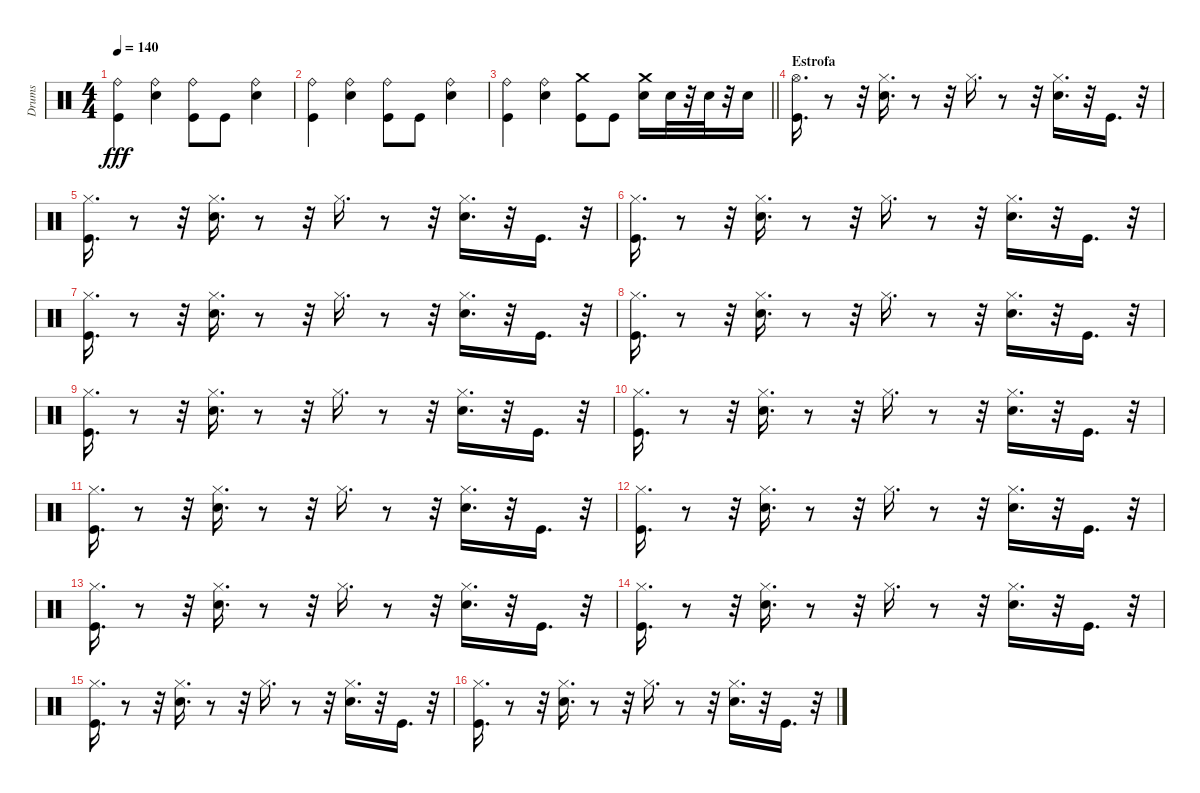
\track ("Drums" "Drums") {instrument percussion}
\staff {score}
\articulation defaults
\ts (4 4)
\tempo 140
\clef neutral
\ks c
("Ride (bell)" "Kick (hit)").4{dy fff} ("Ride (bell)" "Electric Snare (hit)").4 ("Ride (bell)" "Kick (hit)").8 "Kick (hit)".8 ("Ride (bell)" "Electric Snare (hit)").4 |
("Ride (bell)" "Kick (hit)").4 ("Ride (bell)" "Electric Snare (hit)").4 ("Ride (bell)" "Kick (hit)").8 "Kick (hit)".8 ("Ride (bell)" "Electric Snare (hit)").4 |
\barLineRight lightlight
("Ride (bell)" "Kick (hit)").4 ("Ride (bell)" "Electric Snare (hit)").4 ("Crash medium (hit)" "Kick (hit)").8 "Kick (hit)".8 ("Crash medium (hit)" "Electric Snare (hit)").16 "Electric Snare (hit)".32 r.32 "Electric Snare (hit)".32 r.32 "Electric Snare (hit)".16 |
\section ("" "Estrofa")
("Hi-Hat (open)" "Kick (hit)").16{d} r.8 r.32 ("Hi-Hat (closed)" "Electric Snare (hit)").16{d} r.8 r.32 "Hi-Hat (closed)".16{d} r.8 r.32 ("Hi-Hat (closed)" "Electric Snare (hit)").16{d} r.32 "Kick (hit)".16{d} r.32 |
("Hi-Hat (closed)" "Kick (hit)").16{d} r.8 r.32 ("Hi-Hat (closed)" "Electric Snare (hit)").16{d} r.8 r.32 "Hi-Hat (closed)".16{d} r.8 r.32 ("Hi-Hat (closed)" "Electric Snare (hit)").16{d} r.32 "Kick (hit)".16{d} r.32 |
("Hi-Hat (closed)" "Kick (hit)").16{d} r.8 r.32 ("Hi-Hat (closed)" "Electric Snare (hit)").16{d} r.8 r.32 "Hi-Hat (closed)".16{d} r.8 r.32 ("Hi-Hat (closed)" "Electric Snare (hit)").16{d} r.32 "Kick (hit)".16{d} r.32 |
("Hi-Hat (closed)" "Kick (hit)").16{d} r.8 r.32 ("Hi-Hat (closed)" "Electric Snare (hit)").16{d} r.8 r.32 "Hi-Hat (closed)".16{d} r.8 r.32 ("Hi-Hat (closed)" "Electric Snare (hit)").16{d} r.32 "Kick (hit)".16{d} r.32 |
("Hi-Hat (closed)" "Kick (hit)").16{d} r.8 r.32 ("Hi-Hat (closed)" "Electric Snare (hit)").16{d} r.8 r.32 "Hi-Hat (closed)".16{d} r.8 r.32 ("Hi-Hat (closed)" "Electric Snare (hit)").16{d} r.32 "Kick (hit)".16{d} r.32 |
("Hi-Hat (closed)" "Kick (hit)").16{d} r.8 r.32 ("Hi-Hat (closed)" "Electric Snare (hit)").16{d} r.8 r.32 "Hi-Hat (closed)".16{d} r.8 r.32 ("Hi-Hat (closed)" "Electric Snare (hit)").16{d} r.32 "Kick (hit)".16{d} r.32 |
("Hi-Hat (closed)" "Kick (hit)").16{d} r.8 r.32 ("Hi-Hat (closed)" "Electric Snare (hit)").16{d} r.8 r.32 "Hi-Hat (closed)".16{d} r.8 r.32 ("Hi-Hat (closed)" "Electric Snare (hit)").16{d} r.32 "Kick (hit)".16{d} r.32 |
("Hi-Hat (closed)" "Kick (hit)").16{d} r.8 r.32 ("Hi-Hat (closed)" "Electric Snare (hit)").16{d} r.8 r.32 "Hi-Hat (closed)".16{d} r.8 r.32 ("Hi-Hat (closed)" "Electric Snare (hit)").16{d} r.32 "Kick (hit)".16{d} r.32 |
("Hi-Hat (closed)" "Kick (hit)").16{d} r.8 r.32 ("Hi-Hat (closed)" "Electric Snare (hit)").16{d} r.8 r.32 "Hi-Hat (closed)".16{d} r.8 r.32 ("Hi-Hat (closed)" "Electric Snare (hit)").16{d} r.32 "Kick (hit)".16{d} r.32 |
("Hi-Hat (closed)" "Kick (hit)").16{d} r.8 r.32 ("Hi-Hat (closed)" "Electric Snare (hit)").16{d} r.8 r.32 "Hi-Hat (closed)".16{d} r.8 r.32 ("Hi-Hat (closed)" "Electric Snare (hit)").16{d} r.32 "Kick (hit)".16{d} r.32 |
("Hi-Hat (closed)" "Kick (hit)").16{d} r.8 r.32 ("Hi-Hat (closed)" "Electric Snare (hit)").16{d} r.8 r.32 "Hi-Hat (closed)".16{d} r.8 r.32 ("Hi-Hat (closed)" "Electric Snare (hit)").16{d} r.32 "Kick (hit)".16{d} r.32 |
("Hi-Hat (closed)" "Kick (hit)").16{d} r.8 r.32 ("Hi-Hat (closed)" "Electric Snare (hit)").16{d} r.8 r.32 "Hi-Hat (closed)".16{d} r.8 r.32 ("Hi-Hat (closed)" "Electric Snare (hit)").16{d} r.32 "Kick (hit)".16{d} r.32 |
("Hi-Hat (closed)" "Kick (hit)").16{d} r.8 r.32 ("Hi-Hat (closed)" "Electric Snare (hit)").16{d} r.8 r.32 "Hi-Hat (closed)".16{d} r.8 r.32 ("Hi-Hat (closed)" "Electric Snare (hit)").16{d} r.32 "Kick (hit)".16{d} r.32
